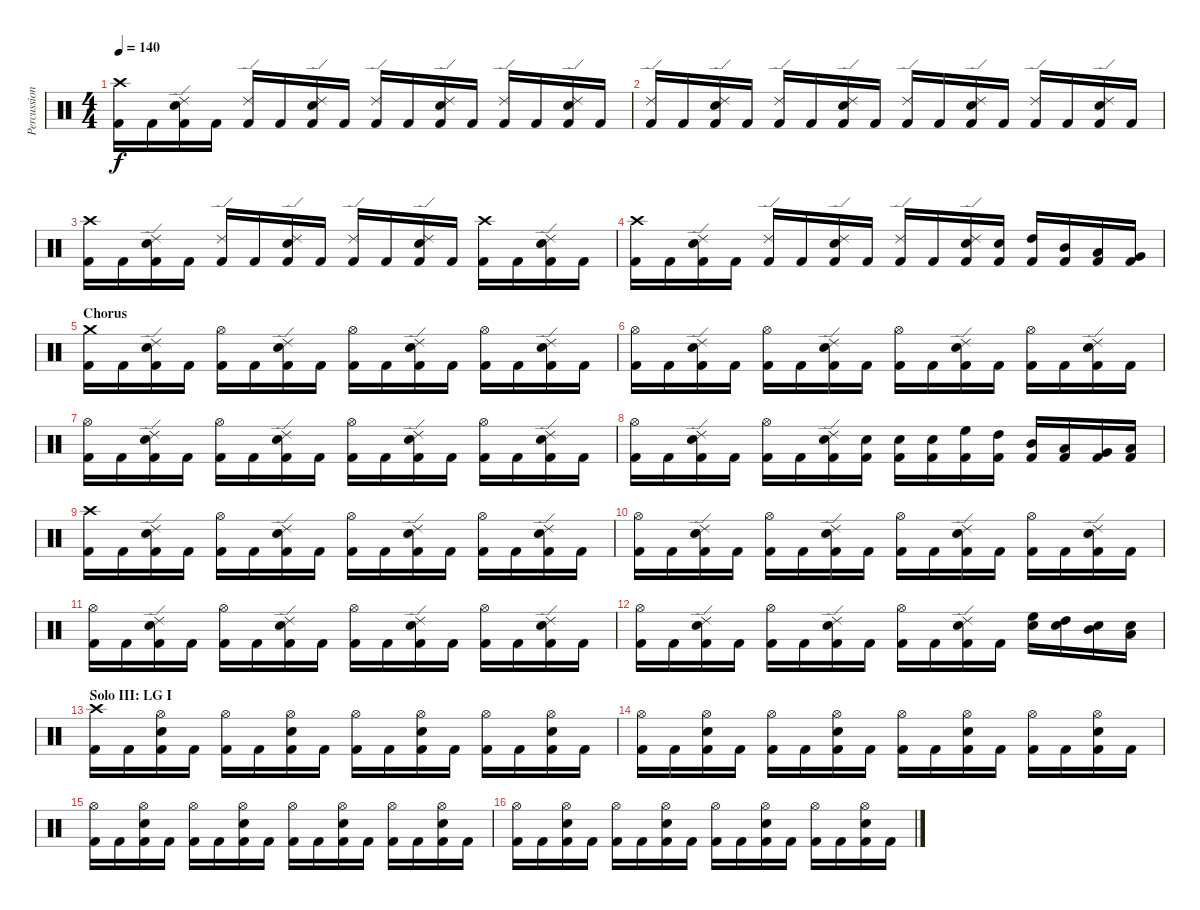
\track ("Percussion" "Percussion") {instrument percussion}
\staff {score}
\articulation defaults
\ts (4 4)
\tempo 140
\clef neutral
\ks c
("Crash high (hit)" "Kick (hit) 2").16{dy f} "Kick (hit) 2".16 ("Ride (edge) 2" "Electric Snare (hit)" "Kick (hit) 2").16 "Kick (hit) 2".16 ("Ride (edge) 2" "Kick (hit) 2").16 "Kick (hit) 2".16 ("Ride (edge) 2" "Electric Snare (hit)" "Kick (hit) 2").16 "Kick (hit) 2".16 ("Ride (edge) 2" "Kick (hit) 2").16 "Kick (hit) 2".16 ("Ride (edge) 2" "Electric Snare (hit)" "Kick (hit) 2").16 "Kick (hit) 2".16 ("Ride (edge) 2" "Kick (hit) 2").16 "Kick (hit) 2".16 ("Ride (edge) 2" "Electric Snare (hit)" "Kick (hit) 2").16 "Kick (hit) 2".16 |
("Ride (edge) 2" "Kick (hit) 2").16 "Kick (hit) 2".16 ("Ride (edge) 2" "Electric Snare (hit)" "Kick (hit) 2").16 "Kick (hit) 2".16 ("Ride (edge) 2" "Kick (hit) 2").16 "Kick (hit) 2".16 ("Ride (edge) 2" "Electric Snare (hit)" "Kick (hit) 2").16 "Kick (hit) 2".16 ("Ride (edge) 2" "Kick (hit) 2").16 "Kick (hit) 2".16 ("Ride (edge) 2" "Electric Snare (hit)" "Kick (hit) 2").16 "Kick (hit) 2".16 ("Ride (edge) 2" "Kick (hit) 2").16 "Kick (hit) 2".16 ("Ride (edge) 2" "Electric Snare (hit)" "Kick (hit) 2").16 "Kick (hit) 2".16 |
("Crash high (hit)" "Kick (hit) 2").16 "Kick (hit) 2".16 ("Ride (edge) 2" "Electric Snare (hit)" "Kick (hit) 2").16 "Kick (hit) 2".16 ("Ride (edge) 2" "Kick (hit) 2").16 "Kick (hit) 2".16 ("Ride (edge) 2" "Electric Snare (hit)" "Kick (hit) 2").16 "Kick (hit) 2".16 ("Ride (edge) 2" "Kick (hit) 2").16 "Kick (hit) 2".16 ("Ride (edge) 2" "Electric Snare (hit)" "Kick (hit) 2").16 "Kick (hit) 2".16 ("Crash high (hit)" "Kick (hit) 2").16 "Kick (hit) 2".16 ("Ride (edge) 2" "Electric Snare (hit)" "Kick (hit) 2").16 "Kick (hit) 2".16 |
("Crash high (hit)" "Kick (hit) 2").16 "Kick (hit) 2".16 ("Ride (edge) 2" "Electric Snare (hit)" "Kick (hit) 2").16 "Kick (hit) 2".16 ("Ride (edge) 2" "Kick (hit) 2").16 "Kick (hit) 2".16 ("Ride (edge) 2" "Electric Snare (hit)" "Kick (hit) 2").16 "Kick (hit) 2".16 ("Ride (edge) 2" "Kick (hit) 2").16 "Kick (hit) 2".16 ("Ride (edge) 2" "Electric Snare (hit)" "Kick (hit) 2").16 ("Electric Snare (hit)" "Kick (hit) 2").16 ("High Tom (hit)" "Kick (hit) 2").16 ("Mid Tom (hit)" "Kick (hit) 2").16 ("Low Tom (hit)" "Kick (hit) 2").16 ("Very Low Tom (hit)" "Kick (hit) 2").16 |
\section ("" "Chorus")
("Crash medium (hit)" "Kick (hit) 2").16 "Kick (hit) 2".16 ("Ride (edge) 2" "Electric Snare (hit)" "Kick (hit) 2").16 "Kick (hit) 2".16 ("Hi-Hat (open)" "Kick (hit) 2").16 "Kick (hit) 2".16 ("Ride (edge) 2" "Electric Snare (hit)" "Kick (hit) 2").16 "Kick (hit) 2".16 ("Hi-Hat (open)" "Kick (hit) 2").16 "Kick (hit) 2".16 ("Ride (edge) 2" "Electric Snare (hit)" "Kick (hit) 2").16 "Kick (hit) 2".16 ("Hi-Hat (open)" "Kick (hit) 2").16 "Kick (hit) 2".16 ("Ride (edge) 2" "Electric Snare (hit)" "Kick (hit) 2").16 "Kick (hit) 2".16 |
("Hi-Hat (open)" "Kick (hit) 2").16 "Kick (hit) 2".16 ("Ride (edge) 2" "Electric Snare (hit)" "Kick (hit) 2").16 "Kick (hit) 2".16 ("Hi-Hat (open)" "Kick (hit) 2").16 "Kick (hit) 2".16 ("Ride (edge) 2" "Electric Snare (hit)" "Kick (hit) 2").16 "Kick (hit) 2".16 ("Hi-Hat (open)" "Kick (hit) 2").16 "Kick (hit) 2".16 ("Ride (edge) 2" "Electric Snare (hit)" "Kick (hit) 2").16 "Kick (hit) 2".16 ("Hi-Hat (open)" "Kick (hit) 2").16 "Kick (hit) 2".16 ("Ride (edge) 2" "Electric Snare (hit)" "Kick (hit) 2").16 "Kick (hit) 2".16 |
("Hi-Hat (open)" "Kick (hit) 2").16 "Kick (hit) 2".16 ("Ride (edge) 2" "Electric Snare (hit)" "Kick (hit) 2").16 "Kick (hit) 2".16 ("Hi-Hat (open)" "Kick (hit) 2").16 "Kick (hit) 2".16 ("Ride (edge) 2" "Electric Snare (hit)" "Kick (hit) 2").16 "Kick (hit) 2".16 ("Hi-Hat (open)" "Kick (hit) 2").16 "Kick (hit) 2".16 ("Ride (edge) 2" "Electric Snare (hit)" "Kick (hit) 2").16 "Kick (hit) 2".16 ("Hi-Hat (open)" "Kick (hit) 2").16 "Kick (hit) 2".16 ("Ride (edge) 2" "Electric Snare (hit)" "Kick (hit) 2").16 "Kick (hit) 2".16 |
("Hi-Hat (open)" "Kick (hit) 2").16 "Kick (hit) 2".16 ("Ride (edge) 2" "Electric Snare (hit)" "Kick (hit) 2").16 "Kick (hit) 2".16 ("Hi-Hat (open)" "Kick (hit) 2").16 "Kick (hit) 2".16 ("Ride (edge) 2" "Electric Snare (hit)" "Kick (hit) 2").16 ("Electric Snare (hit)" "Kick (hit) 2").16 ("Electric Snare (hit)" "Kick (hit) 2").16 ("Electric Snare (hit)" "Kick (hit) 2").16 ("High Floor Tom (hit)" "Kick (hit) 2").16 ("High Tom (hit)" "Kick (hit) 2").16 ("Mid Tom (hit)" "Kick (hit) 2").16 ("Low Tom (hit)" "Kick (hit) 2").16 ("Very Low Tom (hit)" "Kick (hit) 2").16 ("Low Floor Tom (hit)" "Kick (hit) 2").16 |
("Crash high (hit)" "Kick (hit) 2").16 "Kick (hit) 2".16 ("Ride (edge) 2" "Electric Snare (hit)" "Kick (hit) 2").16 "Kick (hit) 2".16 ("Hi-Hat (open)" "Kick (hit) 2").16 "Kick (hit) 2".16 ("Ride (edge) 2" "Electric Snare (hit)" "Kick (hit) 2").16 "Kick (hit) 2".16 ("Hi-Hat (open)" "Kick (hit) 2").16 "Kick (hit) 2".16 ("Ride (edge) 2" "Electric Snare (hit)" "Kick (hit) 2").16 "Kick (hit) 2".16 ("Hi-Hat (open)" "Kick (hit) 2").16 "Kick (hit) 2".16 ("Ride (edge) 2" "Electric Snare (hit)" "Kick (hit) 2").16 "Kick (hit) 2".16 |
("Hi-Hat (open)" "Kick (hit) 2").16 "Kick (hit) 2".16 ("Ride (edge) 2" "Electric Snare (hit)" "Kick (hit) 2").16 "Kick (hit) 2".16 ("Hi-Hat (open)" "Kick (hit) 2").16 "Kick (hit) 2".16 ("Ride (edge) 2" "Electric Snare (hit)" "Kick (hit) 2").16 "Kick (hit) 2".16 ("Hi-Hat (open)" "Kick (hit) 2").16 "Kick (hit) 2".16 ("Ride (edge) 2" "Electric Snare (hit)" "Kick (hit) 2").16 "Kick (hit) 2".16 ("Hi-Hat (open)" "Kick (hit) 2").16 "Kick (hit) 2".16 ("Ride (edge) 2" "Electric Snare (hit)" "Kick (hit) 2").16 "Kick (hit) 2".16 |
("Hi-Hat (open)" "Kick (hit) 2").16 "Kick (hit) 2".16 ("Ride (edge) 2" "Electric Snare (hit)" "Kick (hit) 2").16 "Kick (hit) 2".16 ("Hi-Hat (open)" "Kick (hit) 2").16 "Kick (hit) 2".16 ("Ride (edge) 2" "Electric Snare (hit)" "Kick (hit) 2").16 "Kick (hit) 2".16 ("Hi-Hat (open)" "Kick (hit) 2").16 "Kick (hit) 2".16 ("Ride (edge) 2" "Electric Snare (hit)" "Kick (hit) 2").16 "Kick (hit) 2".16 ("Hi-Hat (open)" "Kick (hit) 2").16 "Kick (hit) 2".16 ("Ride (edge) 2" "Electric Snare (hit)" "Kick (hit) 2").16 "Kick (hit) 2".16 |
("Hi-Hat (open)" "Kick (hit) 2").16 "Kick (hit) 2".16 ("Ride (edge) 2" "Electric Snare (hit)" "Kick (hit) 2").16 "Kick (hit) 2".16 ("Hi-Hat (open)" "Kick (hit) 2").16 "Kick (hit) 2".16 ("Ride (edge) 2" "Electric Snare (hit)" "Kick (hit) 2").16 "Kick (hit) 2".16 ("Hi-Hat (open)" "Kick (hit) 2").16 "Kick (hit) 2".16 ("Ride (edge) 2" "Electric Snare (hit)" "Kick (hit) 2").16 "Kick (hit) 2".16 ("High Floor Tom (hit)" "Electric Snare (hit)").16 ("High Tom (hit)" "Electric Snare (hit)").16 ("Mid Tom (hit)" "Electric Snare (hit)").16 ("Low Tom (hit)" "Electric Snare (hit)").16 |
\section ("" "Solo III: LG I")
("Crash high (hit)" "Kick (hit) 2").16 "Kick (hit) 2".16 ("Hi-Hat (open)" "Electric Snare (hit)" "Kick (hit) 2").16 "Kick (hit) 2".16 ("Hi-Hat (open)" "Kick (hit) 2").16 "Kick (hit) 2".16 ("Hi-Hat (open)" "Electric Snare (hit)" "Kick (hit) 2").16 "Kick (hit) 2".16 ("Hi-Hat (open)" "Kick (hit) 2").16 "Kick (hit) 2".16 ("Hi-Hat (open)" "Electric Snare (hit)" "Kick (hit) 2").16 "Kick (hit) 2".16 ("Hi-Hat (open)" "Kick (hit) 2").16 "Kick (hit) 2".16 ("Hi-Hat (open)" "Electric Snare (hit)" "Kick (hit) 2").16 "Kick (hit) 2".16 |
("Hi-Hat (open)" "Kick (hit) 2").16 "Kick (hit) 2".16 ("Hi-Hat (open)" "Electric Snare (hit)" "Kick (hit) 2").16 "Kick (hit) 2".16 ("Hi-Hat (open)" "Kick (hit) 2").16 "Kick (hit) 2".16 ("Hi-Hat (open)" "Electric Snare (hit)" "Kick (hit) 2").16 "Kick (hit) 2".16 ("Hi-Hat (open)" "Kick (hit) 2").16 "Kick (hit) 2".16 ("Hi-Hat (open)" "Electric Snare (hit)" "Kick (hit) 2").16 "Kick (hit) 2".16 ("Hi-Hat (open)" "Kick (hit) 2").16 "Kick (hit) 2".16 ("Hi-Hat (open)" "Electric Snare (hit)" "Kick (hit) 2").16 "Kick (hit) 2".16 |
("Hi-Hat (open)" "Kick (hit) 2").16 "Kick (hit) 2".16 ("Hi-Hat (open)" "Electric Snare (hit)" "Kick (hit) 2").16 "Kick (hit) 2".16 ("Hi-Hat (open)" "Kick (hit) 2").16 "Kick (hit) 2".16 ("Hi-Hat (open)" "Electric Snare (hit)" "Kick (hit) 2").16 "Kick (hit) 2".16 ("Hi-Hat (open)" "Kick (hit) 2").16 "Kick (hit) 2".16 ("Hi-Hat (open)" "Electric Snare (hit)" "Kick (hit) 2").16 "Kick (hit) 2".16 ("Hi-Hat (open)" "Kick (hit) 2").16 "Kick (hit) 2".16 ("Hi-Hat (open)" "Electric Snare (hit)" "Kick (hit) 2").16 "Kick (hit) 2".16 |
("Hi-Hat (open)" "Kick (hit) 2").16 "Kick (hit) 2".16 ("Hi-Hat (open)" "Electric Snare (hit)" "Kick (hit) 2").16 "Kick (hit) 2".16 ("Hi-Hat (open)" "Kick (hit) 2").16 "Kick (hit) 2".16 ("Hi-Hat (open)" "Electric Snare (hit)" "Kick (hit) 2").16 "Kick (hit) 2".16 ("Hi-Hat (open)" "Kick (hit) 2").16 "Kick (hit) 2".16 ("Hi-Hat (open)" "Electric Snare (hit)" "Kick (hit) 2").16 "Kick (hit) 2".16 ("Hi-Hat (open)" "Kick (hit) 2").16 "Kick (hit) 2".16 ("Hi-Hat (open)" "Electric Snare (hit)" "Kick (hit) 2").16 "Kick (hit) 2".16
